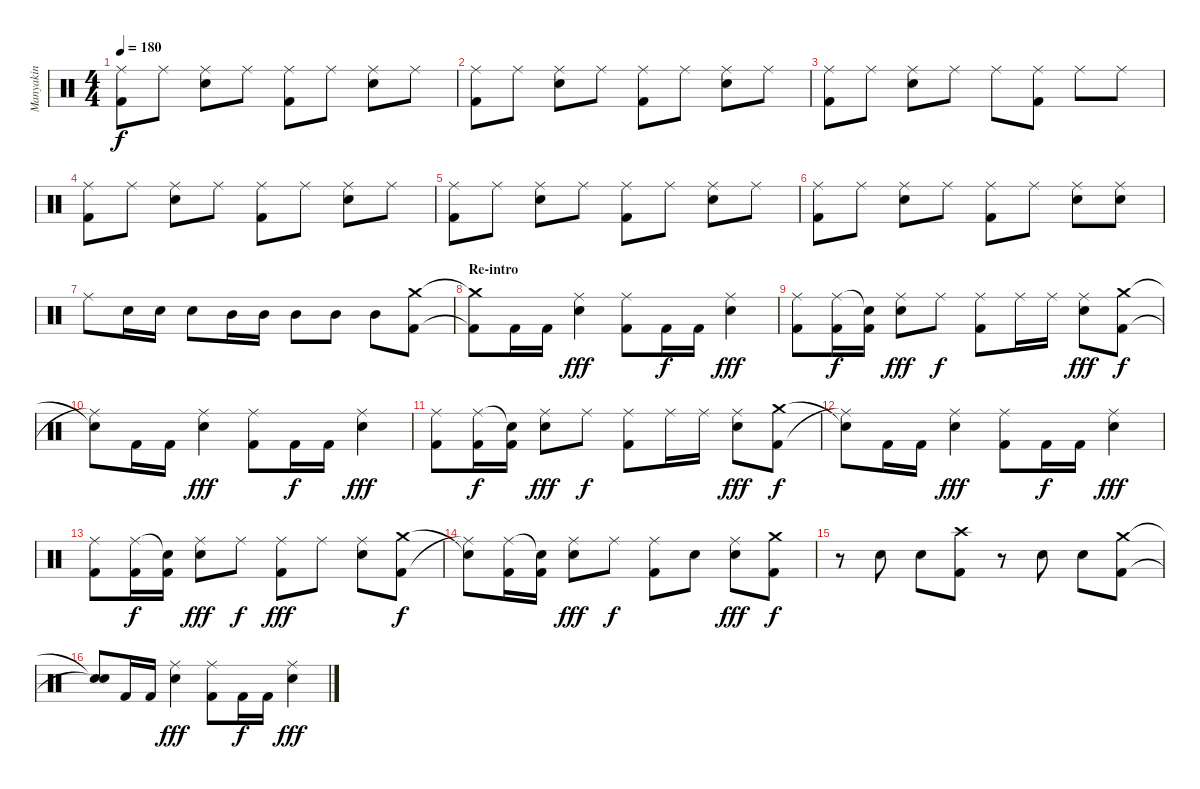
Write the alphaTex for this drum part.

\track ("Manyakin" "Manyakin") {instrument percussion}
\staff {score}
\articulation defaults
\ts (4 4)
\tempo 180
\clef neutral
\ks c
("Kick (hit) 2" "Ride (middle)").8{dy f} "Ride (middle)".8 ("Snare (hit) 2" "Ride (middle)").8 "Ride (middle)".8 ("Kick (hit) 2" "Ride (middle)").8 "Ride (middle)".8 ("Snare (hit) 2" "Ride (middle)").8 "Ride (middle)".8 |
("Kick (hit) 2" "Ride (middle)").8 "Ride (middle)".8 ("Snare (hit) 2" "Ride (middle)").8 "Ride (middle)".8 ("Kick (hit) 2" "Ride (middle)").8 "Ride (middle)".8 ("Snare (hit) 2" "Ride (middle)").8 "Ride (middle)".8 |
("Kick (hit) 2" "Ride (middle)").8 "Ride (middle)".8 ("Snare (hit) 2" "Ride (middle)").8 "Ride (middle)".8 "Ride (middle)".8 ("Kick (hit) 2" "Ride (middle)").8 "Ride (middle)".8 "Ride (middle)".8 |
("Kick (hit) 2" "Ride (middle)").8 "Ride (middle)".8 ("Snare (hit) 2" "Ride (middle)").8 "Ride (middle)".8 ("Kick (hit) 2" "Ride (middle)").8 "Ride (middle)".8 ("Snare (hit) 2" "Ride (middle)").8 "Ride (middle)".8 |
("Kick (hit) 2" "Ride (middle)").8 "Ride (middle)".8 ("Snare (hit) 2" "Ride (middle)").8 "Ride (middle)".8 ("Kick (hit) 2" "Ride (middle)").8 "Ride (middle)".8 ("Snare (hit) 2" "Ride (middle)").8 "Ride (middle)".8 |
("Kick (hit) 2" "Ride (middle)").8 "Ride (middle)".8 ("Snare (hit) 2" "Ride (middle)").8 "Ride (middle)".8 ("Kick (hit) 2" "Ride (middle)").8 "Ride (middle)".8 ("Snare (hit) 2" "Ride (middle)").8 ("Snare (hit) 2" "Ride (middle)").8 |
"Ride (middle)".8 "Snare (hit) 2".16 "Snare (hit) 2".16 "Snare (hit) 2".8 "Mid Tom (hit)".16 "Mid Tom (hit)".16 "Mid Tom (hit)".8 "Mid Tom (hit)".8 "Mid Tom (hit)".8 ("Kick (hit) 2" "Crash medium (hit)").8 |
\section ("" "Re-intro ")
("Kick (hit) 2"{t} "Crash medium (hit)"{t}).8 "Kick (hit) 2".16 "Kick (hit) 2".16 ("Snare (hit) 2" "Ride (middle)").4{dy fff} ("Kick (hit) 2" "Ride (middle)").8 "Kick (hit) 2".16{dy f} "Kick (hit) 2".16 ("Snare (hit) 2" "Ride (middle)").4{dy fff} |
("Kick (hit) 2" "Ride (middle)").8 ("Kick (hit) 2" "Ride (middle)").16{dy f} ("Kick (hit) 2" "Snare (hit)"{t}).16 ("Snare (hit) 2" "Ride (middle)").8{dy fff} "Ride (middle)".8{dy f} ("Kick (hit) 2" "Ride (middle)").8 "Ride (middle)".16 "Ride (middle)".16 ("Snare (hit) 2" "Ride (middle)").8{dy fff} ("Kick (hit) 2" "Crash medium (hit)").8{dy f} |
("Ride (middle)"{t} "Snare (hit)"{t}).8 "Kick (hit) 2".16 "Kick (hit) 2".16 ("Snare (hit) 2" "Ride (middle)").4{dy fff} ("Kick (hit) 2" "Ride (middle)").8 "Kick (hit) 2".16{dy f} "Kick (hit) 2".16 ("Snare (hit) 2" "Ride (middle)").4{dy fff} |
("Kick (hit) 2" "Ride (middle)").8 ("Kick (hit) 2" "Ride (middle)").16{dy f} ("Kick (hit) 2" "Snare (hit)"{t}).16 ("Snare (hit) 2" "Ride (middle)").8{dy fff} "Ride (middle)".8{dy f} ("Kick (hit) 2" "Ride (middle)").8 "Ride (middle)".16 "Ride (middle)".16 ("Snare (hit) 2" "Ride (middle)").8{dy fff} ("Kick (hit) 2" "Crash medium (hit)").8{dy f} |
("Ride (middle)"{t} "Snare (hit)"{t}).8 "Kick (hit) 2".16 "Kick (hit) 2".16 ("Snare (hit) 2" "Ride (middle)").4{dy fff} ("Kick (hit) 2" "Ride (middle)").8 "Kick (hit) 2".16{dy f} "Kick (hit) 2".16 ("Snare (hit) 2" "Ride (middle)").4{dy fff} |
("Kick (hit) 2" "Ride (middle)").8 ("Kick (hit) 2" "Ride (middle)").16{dy f} ("Kick (hit) 2" "Snare (hit)"{t}).16 ("Snare (hit) 2" "Ride (middle)").8{dy fff} "Ride (middle)".8{dy f} ("Ride (middle)" "Kick (hit) 2").8{dy fff} "Ride (middle)".8 ("Snare (hit) 2" "Ride (middle)").8 ("Kick (hit) 2" "Crash medium (hit)").8{dy f} |
("Ride (middle)"{t} "Snare (hit)"{t}).8 ("Kick (hit) 2" "Ride (middle)").16 ("Kick (hit) 2" "Snare (hit)"{t}).16 ("Snare (hit) 2" "Ride (middle)").8{dy fff} "Ride (middle)".8{dy f} ("Ride (middle)" "Kick (hit) 2").8 "Snare (hit) 2".8 ("Snare (hit) 2" "Ride (middle)").8{dy fff} ("Kick (hit) 2" "Crash medium (hit)").8{dy f} |
r.8 "Snare (hit) 2".8 "Snare (hit) 2".8 ("Kick (hit) 2" "Crash high (hit)").8 r.8 "Snare (hit) 2".8 "Snare (hit) 2".8 ("Kick (hit) 2" "Crash medium (hit)").8 |
("Snare (hit)"{t} "Snare (hit)"{t}).8 "Kick (hit) 2".16 "Kick (hit) 2".16 ("Snare (hit) 2" "Ride (middle)").4{dy fff} ("Kick (hit) 2" "Ride (middle)").8 "Kick (hit) 2".16{dy f} "Kick (hit) 2".16 ("Snare (hit) 2" "Ride (middle)").4{dy fff}
